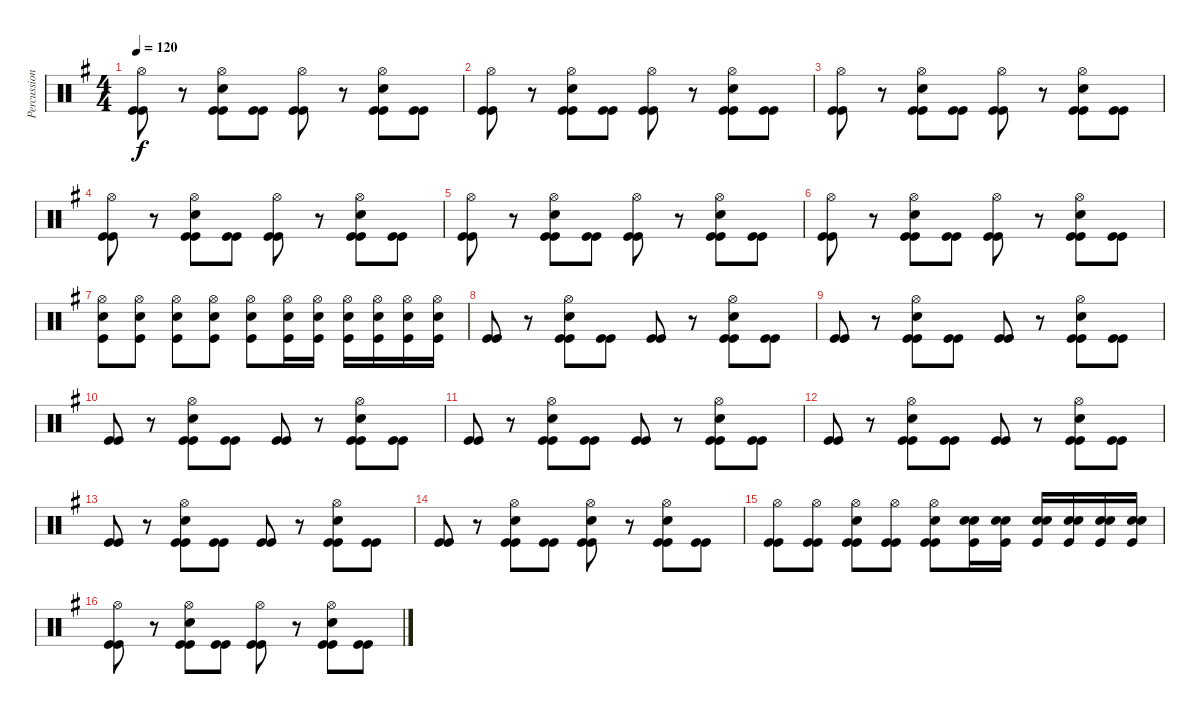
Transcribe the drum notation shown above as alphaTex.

\track ("Percussion" "Percussion") {instrument percussion}
\staff {score}
\articulation defaults
\ts (4 4)
\tempo 120
\clef neutral
\ks eminor
("Hi-Hat (open)" "Kick (hit)" "Kick (hit)").8{dy f} r.8 ("Hi-Hat (open)" "Kick (hit)" "Kick (hit)" "Snare (hit) 2").8 ("Kick (hit)" "Kick (hit)").8 ("Hi-Hat (open)" "Kick (hit)" "Kick (hit)").8 r.8 ("Hi-Hat (open)" "Kick (hit)" "Kick (hit)" "Snare (hit) 2").8 ("Kick (hit)" "Kick (hit)").8 |
("Hi-Hat (open)" "Kick (hit)" "Kick (hit)").8 r.8 ("Hi-Hat (open)" "Kick (hit)" "Kick (hit)" "Snare (hit) 2").8 ("Kick (hit)" "Kick (hit)").8 ("Hi-Hat (open)" "Kick (hit)" "Kick (hit)").8 r.8 ("Hi-Hat (open)" "Kick (hit)" "Kick (hit)" "Snare (hit) 2").8 ("Kick (hit)" "Kick (hit)").8 |
("Hi-Hat (open)" "Kick (hit)" "Kick (hit)").8 r.8 ("Hi-Hat (open)" "Kick (hit)" "Kick (hit)" "Snare (hit) 2").8 ("Kick (hit)" "Kick (hit)").8 ("Hi-Hat (open)" "Kick (hit)" "Kick (hit)").8 r.8 ("Hi-Hat (open)" "Kick (hit)" "Kick (hit)" "Snare (hit) 2").8 ("Kick (hit)" "Kick (hit)").8 |
("Hi-Hat (open)" "Kick (hit)" "Kick (hit)").8 r.8 ("Hi-Hat (open)" "Kick (hit)" "Kick (hit)" "Snare (hit) 2").8 ("Kick (hit)" "Kick (hit)").8 ("Hi-Hat (open)" "Kick (hit)" "Kick (hit)").8 r.8 ("Hi-Hat (open)" "Kick (hit)" "Kick (hit)" "Snare (hit) 2").8 ("Kick (hit)" "Kick (hit)").8 |
("Hi-Hat (open)" "Kick (hit)" "Kick (hit)").8 r.8 ("Hi-Hat (open)" "Kick (hit)" "Kick (hit)" "Snare (hit) 2").8 ("Kick (hit)" "Kick (hit)").8 ("Hi-Hat (open)" "Kick (hit)" "Kick (hit)").8 r.8 ("Hi-Hat (open)" "Kick (hit)" "Kick (hit)" "Snare (hit) 2").8 ("Kick (hit)" "Kick (hit)").8 |
("Hi-Hat (open)" "Kick (hit)" "Kick (hit)").8 r.8 ("Hi-Hat (open)" "Kick (hit)" "Kick (hit)" "Snare (hit) 2").8 ("Kick (hit)" "Kick (hit)").8 ("Hi-Hat (open)" "Kick (hit)" "Kick (hit)").8 r.8 ("Hi-Hat (open)" "Kick (hit)" "Kick (hit)" "Snare (hit) 2").8 ("Kick (hit)" "Kick (hit)").8 |
("Hi-Hat (open)" "Kick (hit)" "Snare (hit) 2").8 ("Hi-Hat (open)" "Kick (hit)" "Snare (hit) 2").8 ("Hi-Hat (open)" "Kick (hit)" "Snare (hit) 2").8 ("Hi-Hat (open)" "Kick (hit)" "Snare (hit) 2").8 ("Hi-Hat (open)" "Kick (hit)" "Snare (hit) 2").8 ("Hi-Hat (open)" "Kick (hit)" "Snare (hit) 2").16 ("Hi-Hat (open)" "Kick (hit)" "Snare (hit) 2").16 ("Hi-Hat (open)" "Kick (hit)" "Snare (hit) 2").16 ("Hi-Hat (open)" "Kick (hit)" "Snare (hit) 2").16 ("Hi-Hat (open)" "Kick (hit)" "Snare (hit) 2").16 ("Hi-Hat (open)" "Kick (hit)" "Snare (hit) 2").16 |
("Kick (hit)" "Kick (hit)").8 r.8 ("Hi-Hat (open)" "Kick (hit)" "Kick (hit)" "Snare (hit) 2").8 ("Kick (hit)" "Kick (hit)").8 ("Kick (hit)" "Kick (hit)").8 r.8 ("Hi-Hat (open)" "Kick (hit)" "Kick (hit)" "Snare (hit) 2").8 ("Kick (hit)" "Kick (hit)").8 |
("Kick (hit)" "Kick (hit)").8 r.8 ("Hi-Hat (open)" "Kick (hit)" "Kick (hit)" "Snare (hit) 2").8 ("Kick (hit)" "Kick (hit)").8 ("Kick (hit)" "Kick (hit)").8 r.8 ("Hi-Hat (open)" "Kick (hit)" "Kick (hit)" "Snare (hit) 2").8 ("Kick (hit)" "Kick (hit)").8 |
("Kick (hit)" "Kick (hit)").8 r.8 ("Hi-Hat (open)" "Kick (hit)" "Kick (hit)" "Snare (hit) 2").8 ("Kick (hit)" "Kick (hit)").8 ("Kick (hit)" "Kick (hit)").8 r.8 ("Hi-Hat (open)" "Kick (hit)" "Kick (hit)" "Snare (hit) 2").8 ("Kick (hit)" "Kick (hit)").8 |
("Kick (hit)" "Kick (hit)").8 r.8 ("Hi-Hat (open)" "Kick (hit)" "Kick (hit)" "Snare (hit) 2").8 ("Kick (hit)" "Kick (hit)").8 ("Kick (hit)" "Kick (hit)").8 r.8 ("Hi-Hat (open)" "Kick (hit)" "Kick (hit)" "Snare (hit) 2").8 ("Kick (hit)" "Kick (hit)").8 |
("Kick (hit)" "Kick (hit)").8 r.8 ("Hi-Hat (open)" "Kick (hit)" "Kick (hit)" "Snare (hit) 2").8 ("Kick (hit)" "Kick (hit)").8 ("Kick (hit)" "Kick (hit)").8 r.8 ("Hi-Hat (open)" "Kick (hit)" "Kick (hit)" "Snare (hit) 2").8 ("Kick (hit)" "Kick (hit)").8 |
("Kick (hit)" "Kick (hit)").8 r.8 ("Hi-Hat (open)" "Kick (hit)" "Kick (hit)" "Snare (hit) 2").8 ("Kick (hit)" "Kick (hit)").8 ("Kick (hit)" "Kick (hit)").8 r.8 ("Hi-Hat (open)" "Kick (hit)" "Kick (hit)" "Snare (hit) 2").8 ("Kick (hit)" "Kick (hit)").8 |
("Kick (hit)" "Kick (hit)").8 r.8 ("Hi-Hat (open)" "Kick (hit)" "Kick (hit)" "Snare (hit) 2").8 ("Kick (hit)" "Kick (hit)").8 ("Hi-Hat (open)" "Kick (hit)" "Kick (hit)" "Snare (hit) 2").8 r.8 ("Hi-Hat (open)" "Kick (hit)" "Kick (hit)" "Snare (hit) 2").8 ("Kick (hit)" "Kick (hit)").8 |
("Hi-Hat (open)" "Kick (hit)" "Kick (hit)").8 ("Hi-Hat (open)" "Kick (hit)" "Kick (hit)").8 ("Hi-Hat (open)" "Kick (hit)" "Kick (hit)" "Snare (hit) 2").8 ("Hi-Hat (open)" "Kick (hit)" "Kick (hit)").8 ("Hi-Hat (open)" "Kick (hit)" "Kick (hit)" "Snare (hit) 2").8 ("Kick (hit)" "Electric Snare (hit)" "Snare (hit) 2").16 ("Kick (hit)" "Electric Snare (hit)" "Snare (hit) 2").16 ("Kick (hit)" "Electric Snare (hit)" "Snare (hit) 2").16 ("Kick (hit)" "Electric Snare (hit)" "Snare (hit) 2").16 ("Kick (hit)" "Electric Snare (hit)" "Snare (hit) 2").16 ("Kick (hit)" "Electric Snare (hit)" "Snare (hit) 2").16 |
("Hi-Hat (open)" "Kick (hit)" "Kick (hit)").8 r.8 ("Hi-Hat (open)" "Kick (hit)" "Kick (hit)" "Snare (hit) 2").8 ("Kick (hit)" "Kick (hit)").8 ("Hi-Hat (open)" "Kick (hit)" "Kick (hit)").8 r.8 ("Hi-Hat (open)" "Kick (hit)" "Kick (hit)" "Snare (hit) 2").8 ("Kick (hit)" "Kick (hit)").8
